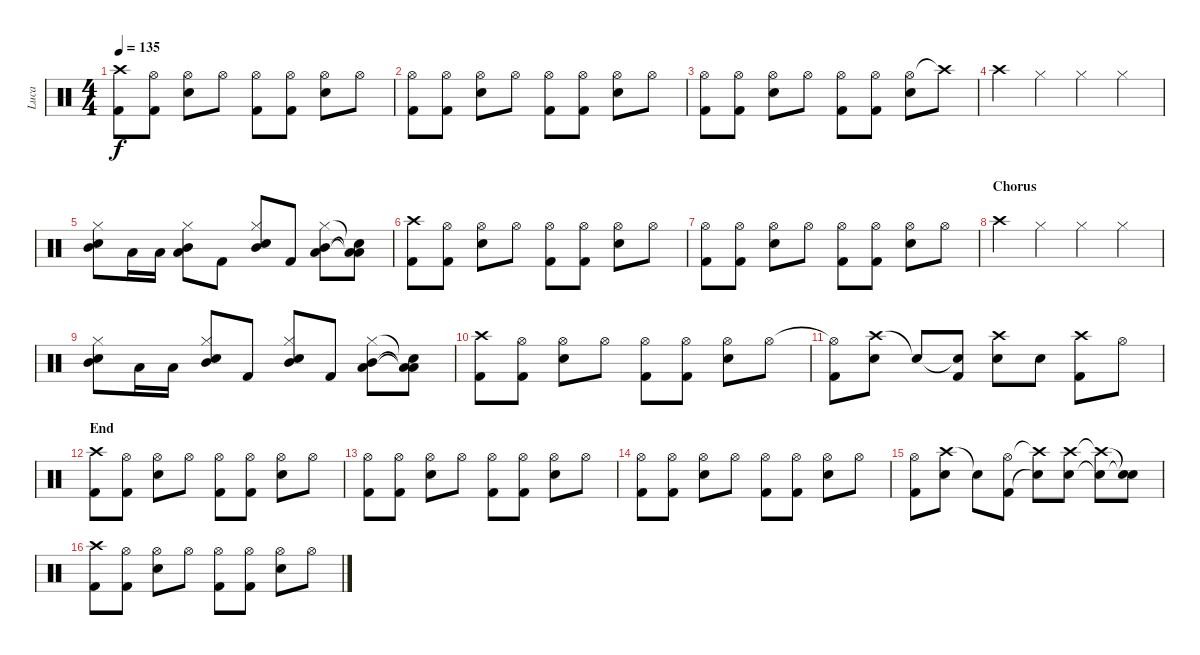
\track ("Luca" "Luca") {instrument percussion}
\staff {score}
\articulation defaults
\ts (4 4)
\tempo 135
\clef neutral
\ks c
("Crash high (hit)" "Kick (hit) 2").8{dy f} ("Hi-Hat (open)" "Kick (hit) 2").8 ("Hi-Hat (open)" "Snare (hit) 2").8 "Hi-Hat (open)".8 ("Hi-Hat (open)" "Kick (hit) 2").8 ("Hi-Hat (open)" "Kick (hit) 2").8 ("Hi-Hat (open)" "Snare (hit) 2").8 "Hi-Hat (open)".8 |
("Hi-Hat (open)" "Kick (hit) 2").8 ("Hi-Hat (open)" "Kick (hit) 2").8 ("Hi-Hat (open)" "Snare (hit) 2").8 "Hi-Hat (open)".8 ("Hi-Hat (open)" "Kick (hit) 2").8 ("Hi-Hat (open)" "Kick (hit) 2").8 ("Hi-Hat (open)" "Snare (hit) 2").8 "Hi-Hat (open)".8 |
("Hi-Hat (open)" "Kick (hit) 2").8 ("Hi-Hat (open)" "Kick (hit) 2").8 ("Hi-Hat (open)" "Snare (hit) 2").8 "Hi-Hat (open)".8 ("Hi-Hat (open)" "Kick (hit) 2").8 ("Hi-Hat (open)" "Kick (hit) 2").8 ("Hi-Hat (open)" "Snare (hit) 2").8 "Crash high (hit)"{t}.8 |
"Crash high (hit)".4 "Hi-Hat (closed)".4 "Hi-Hat (closed)".4 "Hi-Hat (closed)".4 |
("Hi-Hat (closed)" "Snare (hit) 2" "Mid Tom (hit)").8 "Low Tom (hit)".16 "Low Tom (hit)".16 ("Hi-Hat (closed)" "Low Tom (hit)" "Mid Tom (hit)").8 "Kick (hit) 2".8 ("Hi-Hat (closed)" "Snare (hit) 2" "Mid Tom (hit)").8 "Kick (hit) 2".8 ("Hi-Hat (closed)" "Mid Tom (hit)" "Low Tom (hit)").8 ("Snare (hit)"{t} "Low Tom (hit)"{t} "Low Floor Tom (hit)"{t}).8 |
("Crash high (hit)" "Kick (hit) 2").8 ("Hi-Hat (open)" "Kick (hit) 2").8 ("Hi-Hat (open)" "Snare (hit) 2").8 "Hi-Hat (open)".8 ("Hi-Hat (open)" "Kick (hit) 2").8 ("Hi-Hat (open)" "Kick (hit) 2").8 ("Hi-Hat (open)" "Snare (hit) 2").8 "Hi-Hat (open)".8 |
("Hi-Hat (open)" "Kick (hit) 2").8 ("Hi-Hat (open)" "Kick (hit) 2").8 ("Hi-Hat (open)" "Snare (hit) 2").8 "Hi-Hat (open)".8 ("Hi-Hat (open)" "Kick (hit) 2").8 ("Hi-Hat (open)" "Kick (hit) 2").8 ("Hi-Hat (open)" "Snare (hit) 2").8 "Hi-Hat (open)".8 |
\section ("" "Chorus")
"Crash high (hit)".4 "Hi-Hat (closed)".4 "Hi-Hat (closed)".4 "Hi-Hat (closed)".4 |
("Hi-Hat (closed)" "Snare (hit) 2" "Mid Tom (hit)").8 "Low Tom (hit)".16 "Low Tom (hit)".16 ("Hi-Hat (closed)" "Snare (hit) 2" "Mid Tom (hit)").8 "Kick (hit) 2".8 ("Hi-Hat (closed)" "Snare (hit) 2" "Mid Tom (hit)").8 "Kick (hit) 2".8 ("Hi-Hat (closed)" "Mid Tom (hit)" "Low Tom (hit)").8 ("Snare (hit)"{t} "Low Tom (hit)"{t} "Low Floor Tom (hit)"{t}).8 |
("Crash high (hit)" "Kick (hit) 2").8 ("Hi-Hat (open)" "Kick (hit) 2").8 ("Hi-Hat (open)" "Snare (hit) 2").8 "Hi-Hat (open)".8 ("Hi-Hat (open)" "Kick (hit) 2").8 ("Hi-Hat (open)" "Kick (hit) 2").8 ("Hi-Hat (open)" "Snare (hit) 2").8 "Hi-Hat (open)".8 |
("Hi-Hat (open)"{t} "Kick (hit) 2").8 ("Crash high (hit)" "Snare (hit) 2").8 "Snare (hit) 2"{t}.8 ("Snare (hit)"{t} "Kick (hit) 2").8 ("Crash high (hit)" "Snare (hit) 2").8 "Snare (hit) 2".8 ("Crash high (hit)" "Kick (hit) 2").8 "Hi-Hat (open)".8 |
\section ("" "End")
("Crash high (hit)" "Kick (hit) 2").8 ("Hi-Hat (open)" "Kick (hit) 2").8 ("Hi-Hat (open)" "Snare (hit) 2").8 "Hi-Hat (open)".8 ("Hi-Hat (open)" "Kick (hit) 2").8 ("Hi-Hat (open)" "Kick (hit) 2").8 ("Hi-Hat (open)" "Snare (hit) 2").8 "Hi-Hat (open)".8 |
("Hi-Hat (open)" "Kick (hit) 2").8 ("Hi-Hat (open)" "Kick (hit) 2").8 ("Hi-Hat (open)" "Snare (hit) 2").8 "Hi-Hat (open)".8 ("Hi-Hat (open)" "Kick (hit) 2").8 ("Hi-Hat (open)" "Kick (hit) 2").8 ("Hi-Hat (open)" "Snare (hit) 2").8 "Hi-Hat (open)".8 |
("Hi-Hat (open)" "Kick (hit) 2").8 ("Hi-Hat (open)" "Kick (hit) 2").8 ("Hi-Hat (open)" "Snare (hit) 2").8 "Hi-Hat (open)".8 ("Hi-Hat (open)" "Kick (hit) 2").8 ("Hi-Hat (open)" "Kick (hit) 2").8 ("Hi-Hat (open)" "Snare (hit) 2").8 "Hi-Hat (open)".8 |
("Hi-Hat (open)" "Kick (hit) 2").8 ("Crash high (hit)" "Snare (hit) 2").8 "Snare (hit) 2"{t}.8 ("Hi-Hat (open)" "Kick (hit) 2").8 ("Crash high (hit)"{t} "Snare (hit) 2"{t}).8 ("Crash high (hit)" "Snare (hit) 2").8 ("Crash high (hit)"{t} "Snare (hit)"{t}).8 ("Snare (hit)"{t} "Snare (hit)"{t}).8 |
("Crash high (hit)" "Kick (hit) 2").8 ("Hi-Hat (open)" "Kick (hit) 2").8 ("Hi-Hat (open)" "Snare (hit) 2").8 "Hi-Hat (open)".8 ("Hi-Hat (open)" "Kick (hit) 2").8 ("Hi-Hat (open)" "Kick (hit) 2").8 ("Hi-Hat (open)" "Snare (hit) 2").8 "Hi-Hat (open)".8
